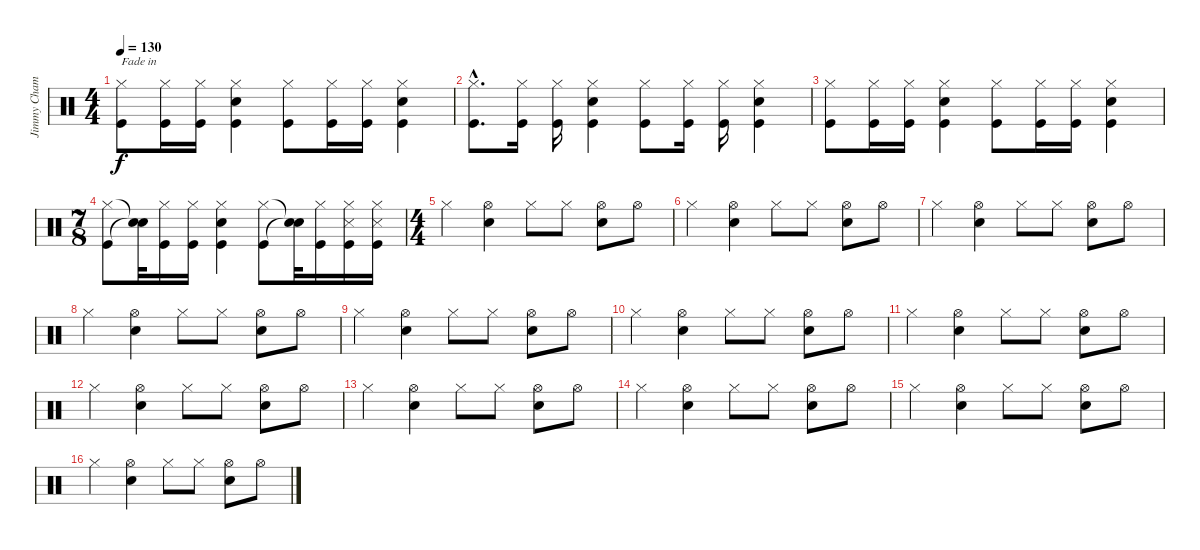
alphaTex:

\track ("Jimmy Chamberlin (Drums)" "Jimmy Cham") {instrument percussion}
\staff {score}
\articulation defaults
\ts (4 4)
\tempo 130
\clef neutral
\ks c
("Hi-Hat (closed)" "Kick (hit)").8{txt "Fade in" dy f} ("Hi-Hat (closed)" "Kick (hit)").16 ("Hi-Hat (closed)" "Kick (hit)").16 ("Hi-Hat (closed)" "Kick (hit)" "Snare (hit) 2").4 ("Hi-Hat (closed)" "Kick (hit)").8 ("Hi-Hat (closed)" "Kick (hit)").16 ("Hi-Hat (closed)" "Kick (hit)").16 ("Hi-Hat (closed)" "Kick (hit)" "Snare (hit) 2").4 |
("Hi-Hat (closed)"{hac} "Kick (hit)"{hac}).8{d} ("Hi-Hat (closed)" "Kick (hit)").16 ("Hi-Hat (closed)" "Kick (hit)").16 ("Hi-Hat (closed)" "Kick (hit)" "Snare (hit) 2").4 ("Hi-Hat (closed)" "Kick (hit)").8 ("Hi-Hat (closed)" "Kick (hit)").16 ("Hi-Hat (closed)" "Kick (hit)").16 ("Hi-Hat (closed)" "Kick (hit)" "Snare (hit) 2").4 |
("Hi-Hat (closed)" "Kick (hit)").8 ("Hi-Hat (closed)" "Kick (hit)").16 ("Hi-Hat (closed)" "Kick (hit)").16 ("Hi-Hat (closed)" "Kick (hit)" "Snare (hit) 2").4 ("Hi-Hat (closed)" "Kick (hit)").8 ("Hi-Hat (closed)" "Kick (hit)").16 ("Hi-Hat (closed)" "Kick (hit)").16 ("Hi-Hat (closed)" "Kick (hit)" "Snare (hit) 2").4 |
\ts (7 8)
("Hi-Hat (closed)" "Kick (hit)").8 ("Snare (hit)"{t} "Snare (hit)"{t}).32 ("Hi-Hat (closed)" "Kick (hit)").16 ("Hi-Hat (closed)" "Kick (hit)").16 ("Hi-Hat (closed)" "Kick (hit)" "Snare (hit) 2").4 ("Hi-Hat (closed)" "Kick (hit)").8 ("Snare (hit)"{t} "Snare (hit)"{t}).32 ("Hi-Hat (closed)" "Kick (hit)").16 ("Hi-Hat (closed)" "Kick (hit)" "Snare (side stick) 3").16 ("Hi-Hat (closed)" "Kick (hit)" "Snare (side stick) 3").16 |
\ts (4 4)
"Hi-Hat (closed)".4 ("Snare (hit) 2" "Hi-Hat (open)").4 "Hi-Hat (closed)".8 "Hi-Hat (closed)".8 ("Snare (hit) 2" "Hi-Hat (open)").8 "Hi-Hat (open)".8 |
"Hi-Hat (closed)".4 ("Snare (hit) 2" "Hi-Hat (open)").4 "Hi-Hat (closed)".8 "Hi-Hat (closed)".8 ("Snare (hit) 2" "Hi-Hat (open)").8 "Hi-Hat (open)".8 |
"Hi-Hat (closed)".4 ("Snare (hit) 2" "Hi-Hat (open)").4 "Hi-Hat (closed)".8 "Hi-Hat (closed)".8 ("Snare (hit) 2" "Hi-Hat (open)").8 "Hi-Hat (open)".8 |
"Hi-Hat (closed)".4 ("Snare (hit) 2" "Hi-Hat (open)").4 "Hi-Hat (closed)".8 "Hi-Hat (closed)".8 ("Snare (hit) 2" "Hi-Hat (open)").8 "Hi-Hat (open)".8 |
"Hi-Hat (closed)".4 ("Snare (hit) 2" "Hi-Hat (open)").4 "Hi-Hat (closed)".8 "Hi-Hat (closed)".8 ("Snare (hit) 2" "Hi-Hat (open)").8 "Hi-Hat (open)".8 |
"Hi-Hat (closed)".4 ("Snare (hit) 2" "Hi-Hat (open)").4 "Hi-Hat (closed)".8 "Hi-Hat (closed)".8 ("Snare (hit) 2" "Hi-Hat (open)").8 "Hi-Hat (open)".8 |
"Hi-Hat (closed)".4 ("Snare (hit) 2" "Hi-Hat (open)").4 "Hi-Hat (closed)".8 "Hi-Hat (closed)".8 ("Snare (hit) 2" "Hi-Hat (open)").8 "Hi-Hat (open)".8 |
"Hi-Hat (closed)".4 ("Snare (hit) 2" "Hi-Hat (open)").4 "Hi-Hat (closed)".8 "Hi-Hat (closed)".8 ("Snare (hit) 2" "Hi-Hat (open)").8 "Hi-Hat (open)".8 |
"Hi-Hat (closed)".4 ("Snare (hit) 2" "Hi-Hat (open)").4 "Hi-Hat (closed)".8 "Hi-Hat (closed)".8 ("Snare (hit) 2" "Hi-Hat (open)").8 "Hi-Hat (open)".8 |
"Hi-Hat (closed)".4 ("Snare (hit) 2" "Hi-Hat (open)").4 "Hi-Hat (closed)".8 "Hi-Hat (closed)".8 ("Snare (hit) 2" "Hi-Hat (open)").8 "Hi-Hat (open)".8 |
"Hi-Hat (closed)".4 ("Snare (hit) 2" "Hi-Hat (open)").4 "Hi-Hat (closed)".8 "Hi-Hat (closed)".8 ("Snare (hit) 2" "Hi-Hat (open)").8 "Hi-Hat (open)".8 |
"Hi-Hat (closed)".4 ("Snare (hit) 2" "Hi-Hat (open)").4 "Hi-Hat (closed)".8 "Hi-Hat (closed)".8 ("Snare (hit) 2" "Hi-Hat (open)").8 "Hi-Hat (open)".8
